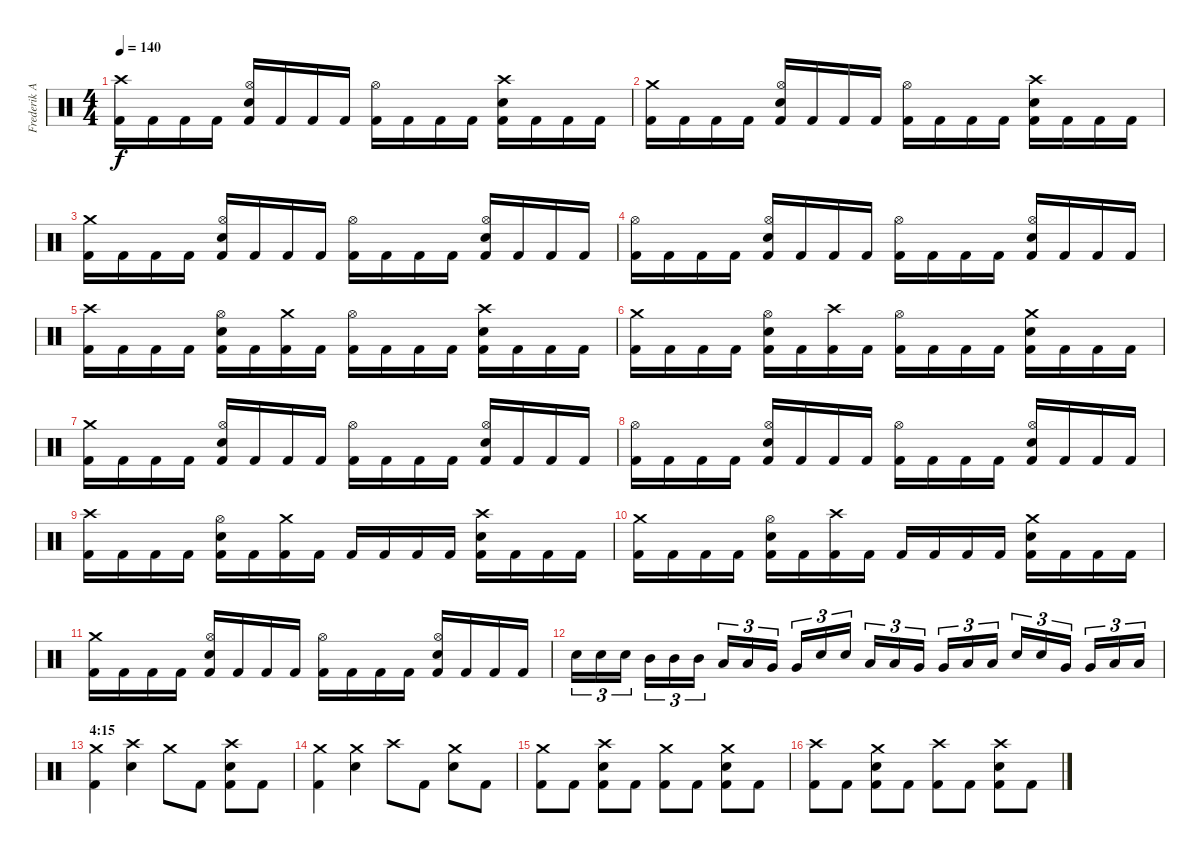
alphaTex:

\track ("Frederik Anderson" "Frederik A") {instrument percussion}
\staff {score}
\articulation defaults
\ts (4 4)
\tempo 140
\clef neutral
\ks c
("Crash high (hit)" "Kick (hit) 2").16{dy f} "Kick (hit) 2".16 "Kick (hit) 2".16 "Kick (hit) 2".16 ("Hi-Hat (open)" "Electric Snare (hit)" "Kick (hit) 2").16 "Kick (hit) 2".16 "Kick (hit) 2".16 "Kick (hit) 2".16 ("Hi-Hat (open)" "Kick (hit) 2").16 "Kick (hit) 2".16 "Kick (hit) 2".16 "Kick (hit) 2".16 ("Crash high (hit)" "Electric Snare (hit)" "Kick (hit) 2").16 "Kick (hit) 2".16 "Kick (hit) 2".16 "Kick (hit) 2".16 |
("Crash medium (hit)" "Kick (hit) 2").16 "Kick (hit) 2".16 "Kick (hit) 2".16 "Kick (hit) 2".16 ("Hi-Hat (open)" "Electric Snare (hit)" "Kick (hit) 2").16 "Kick (hit) 2".16 "Kick (hit) 2".16 "Kick (hit) 2".16 ("Hi-Hat (open)" "Kick (hit) 2").16 "Kick (hit) 2".16 "Kick (hit) 2".16 "Kick (hit) 2".16 ("Crash high (hit)" "Electric Snare (hit)" "Kick (hit) 2").16 "Kick (hit) 2".16 "Kick (hit) 2".16 "Kick (hit) 2".16 |
("Crash medium (hit)" "Kick (hit) 2").16 "Kick (hit) 2".16 "Kick (hit) 2".16 "Kick (hit) 2".16 ("Hi-Hat (open)" "Electric Snare (hit)" "Kick (hit) 2").16 "Kick (hit) 2".16 "Kick (hit) 2".16 "Kick (hit) 2".16 ("Hi-Hat (open)" "Kick (hit) 2").16 "Kick (hit) 2".16 "Kick (hit) 2".16 "Kick (hit) 2".16 ("Hi-Hat (open)" "Electric Snare (hit)" "Kick (hit) 2").16 "Kick (hit) 2".16 "Kick (hit) 2".16 "Kick (hit) 2".16 |
("Hi-Hat (open)" "Kick (hit) 2").16 "Kick (hit) 2".16 "Kick (hit) 2".16 "Kick (hit) 2".16 ("Hi-Hat (open)" "Electric Snare (hit)" "Kick (hit) 2").16 "Kick (hit) 2".16 "Kick (hit) 2".16 "Kick (hit) 2".16 ("Hi-Hat (open)" "Kick (hit) 2").16 "Kick (hit) 2".16 "Kick (hit) 2".16 "Kick (hit) 2".16 ("Hi-Hat (open)" "Electric Snare (hit)" "Kick (hit) 2").16 "Kick (hit) 2".16 "Kick (hit) 2".16 "Kick (hit) 2".16 |
("Crash high (hit)" "Kick (hit) 2").16 "Kick (hit) 2".16 "Kick (hit) 2".16 "Kick (hit) 2".16 ("Hi-Hat (open)" "Electric Snare (hit)" "Kick (hit) 2").16 "Kick (hit) 2".16 ("Crash medium (hit)" "Kick (hit) 2").16 "Kick (hit) 2".16 ("Hi-Hat (open)" "Kick (hit) 2").16 "Kick (hit) 2".16 "Kick (hit) 2".16 "Kick (hit) 2".16 ("Crash high (hit)" "Electric Snare (hit)" "Kick (hit) 2").16 "Kick (hit) 2".16 "Kick (hit) 2".16 "Kick (hit) 2".16 |
("Crash medium (hit)" "Kick (hit) 2").16 "Kick (hit) 2".16 "Kick (hit) 2".16 "Kick (hit) 2".16 ("Hi-Hat (open)" "Electric Snare (hit)" "Kick (hit) 2").16 "Kick (hit) 2".16 ("Crash high (hit)" "Kick (hit) 2").16 "Kick (hit) 2".16 ("Hi-Hat (open)" "Kick (hit) 2").16 "Kick (hit) 2".16 "Kick (hit) 2".16 "Kick (hit) 2".16 ("Crash medium (hit)" "Electric Snare (hit)" "Kick (hit) 2").16 "Kick (hit) 2".16 "Kick (hit) 2".16 "Kick (hit) 2".16 |
("Crash medium (hit)" "Kick (hit) 2").16 "Kick (hit) 2".16 "Kick (hit) 2".16 "Kick (hit) 2".16 ("Hi-Hat (open)" "Electric Snare (hit)" "Kick (hit) 2").16 "Kick (hit) 2".16 "Kick (hit) 2".16 "Kick (hit) 2".16 ("Hi-Hat (open)" "Kick (hit) 2").16 "Kick (hit) 2".16 "Kick (hit) 2".16 "Kick (hit) 2".16 ("Hi-Hat (open)" "Electric Snare (hit)" "Kick (hit) 2").16 "Kick (hit) 2".16 "Kick (hit) 2".16 "Kick (hit) 2".16 |
("Hi-Hat (open)" "Kick (hit) 2").16 "Kick (hit) 2".16 "Kick (hit) 2".16 "Kick (hit) 2".16 ("Hi-Hat (open)" "Electric Snare (hit)" "Kick (hit) 2").16 "Kick (hit) 2".16 "Kick (hit) 2".16 "Kick (hit) 2".16 ("Hi-Hat (open)" "Kick (hit) 2").16 "Kick (hit) 2".16 "Kick (hit) 2".16 "Kick (hit) 2".16 ("Hi-Hat (open)" "Electric Snare (hit)" "Kick (hit) 2").16 "Kick (hit) 2".16 "Kick (hit) 2".16 "Kick (hit) 2".16 |
("Crash high (hit)" "Kick (hit) 2").16 "Kick (hit) 2".16 "Kick (hit) 2".16 "Kick (hit) 2".16 ("Hi-Hat (open)" "Electric Snare (hit)" "Kick (hit) 2").16 "Kick (hit) 2".16 ("Crash medium (hit)" "Kick (hit) 2").16 "Kick (hit) 2".16 "Kick (hit) 2".16 "Kick (hit) 2".16 "Kick (hit) 2".16 "Kick (hit) 2".16 ("Crash high (hit)" "Electric Snare (hit)" "Kick (hit) 2").16 "Kick (hit) 2".16 "Kick (hit) 2".16 "Kick (hit) 2".16 |
("Crash medium (hit)" "Kick (hit) 2").16 "Kick (hit) 2".16 "Kick (hit) 2".16 "Kick (hit) 2".16 ("Hi-Hat (open)" "Electric Snare (hit)" "Kick (hit) 2").16 "Kick (hit) 2".16 ("Crash high (hit)" "Kick (hit) 2").16 "Kick (hit) 2".16 "Kick (hit) 2".16 "Kick (hit) 2".16 "Kick (hit) 2".16 "Kick (hit) 2".16 ("Crash medium (hit)" "Electric Snare (hit)" "Kick (hit) 2").16 "Kick (hit) 2".16 "Kick (hit) 2".16 "Kick (hit) 2".16 |
("Crash medium (hit)" "Kick (hit) 2").16 "Kick (hit) 2".16 "Kick (hit) 2".16 "Kick (hit) 2".16 ("Hi-Hat (open)" "Electric Snare (hit)" "Kick (hit) 2").16 "Kick (hit) 2".16 "Kick (hit) 2".16 "Kick (hit) 2".16 ("Hi-Hat (open)" "Kick (hit) 2").16 "Kick (hit) 2".16 "Kick (hit) 2".16 "Kick (hit) 2".16 ("Hi-Hat (open)" "Electric Snare (hit)" "Kick (hit) 2").16 "Kick (hit) 2".16 "Kick (hit) 2".16 "Kick (hit) 2".16 |
"Electric Snare (hit)".16{tu (3 2)} "Electric Snare (hit)".16{tu (3 2)} "Electric Snare (hit)".16{tu (3 2)} "Mid Tom (hit)".16{tu (3 2)} "Mid Tom (hit)".16{tu (3 2)} "Mid Tom (hit)".16{tu (3 2)} "Low Tom (hit)".16{tu (3 2)} "Low Tom (hit)".16{tu (3 2)} "Very Low Tom (hit)".16{tu (3 2)} "Very Low Tom (hit)".16{tu (3 2)} "Electric Snare (hit)".16{tu (3 2)} "Electric Snare (hit)".16{tu (3 2)} "Low Tom (hit)".16{tu (3 2)} "Low Tom (hit)".16{tu (3 2)} "Very Low Tom (hit)".16{tu (3 2)} "Very Low Tom (hit)".16{tu (3 2)} "Low Floor Tom (hit)".16{tu (3 2)} "Low Floor Tom (hit)".16{tu (3 2)} "Electric Snare (hit)".16{tu (3 2)} "Electric Snare (hit)".16{tu (3 2)} "Very Low Tom (hit)".16{tu (3 2)} "Very Low Tom (hit)".16{tu (3 2)} "Low Floor Tom (hit)".16{tu (3 2)} "Low Floor Tom (hit)".16{tu (3 2)} |
\section ("" "4:15")
("Crash medium (hit)" "Kick (hit) 2").4 ("Crash high (hit)" "Electric Snare (hit)").4 "Crash medium (hit)".8 "Kick (hit) 2".8 ("Crash high (hit)" "Electric Snare (hit)" "Kick (hit) 2").8 "Kick (hit) 2".8 |
("Crash medium (hit)" "Kick (hit) 2").4 ("Crash medium (hit)" "Electric Snare (hit)").4 "Crash high (hit)".8 "Kick (hit) 2".8 ("Crash medium (hit)" "Electric Snare (hit)").8 "Kick (hit) 2".8 |
("Crash medium (hit)" "Kick (hit) 2").8 "Kick (hit) 2".8 ("Crash high (hit)" "Electric Snare (hit)" "Kick (hit) 2").8 "Kick (hit) 2".8 ("Crash medium (hit)" "Kick (hit) 2").8 "Kick (hit) 2".8 ("Crash medium (hit)" "Electric Snare (hit)" "Kick (hit) 2").8 "Kick (hit) 2".8 |
("Crash high (hit)" "Kick (hit) 2").8 "Kick (hit) 2".8 ("Crash medium (hit)" "Electric Snare (hit)" "Kick (hit) 2").8 "Kick (hit) 2".8 ("Crash high (hit)" "Kick (hit) 2").8 "Kick (hit) 2".8 ("Crash high (hit)" "Electric Snare (hit)" "Kick (hit) 2").8 "Kick (hit) 2".8
